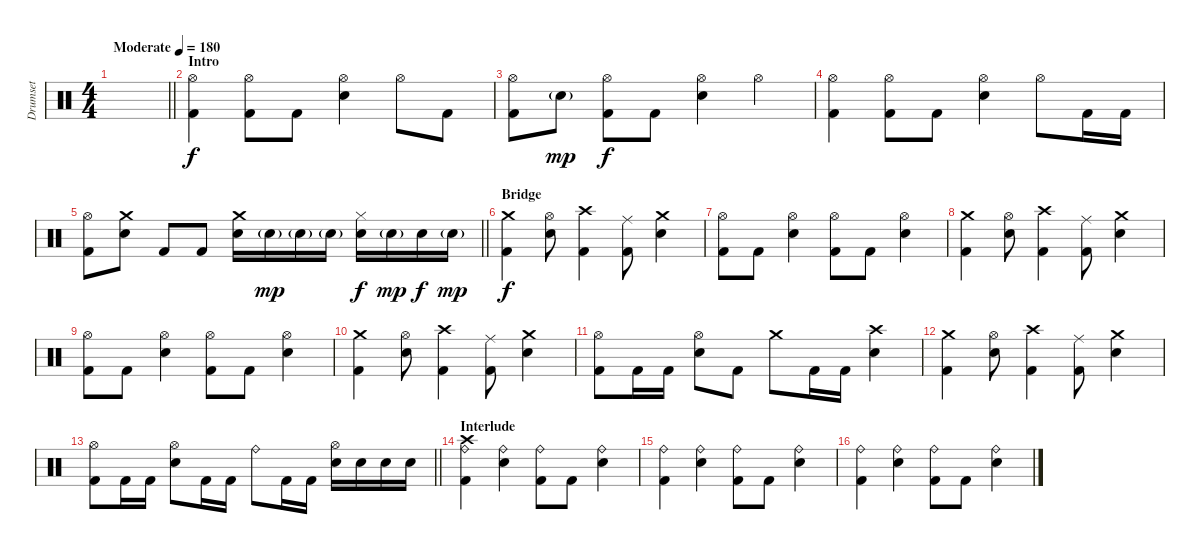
\track ("Drumset" "Drumset") {instrument percussion}
\staff {score}
\articulation defaults
\ts (4 4)
\tempo (180 "Moderate")
\clef neutral
\barLineRight lightlight
\ks c
|
\section ("" "Intro")
("Hi-Hat (open)" "Kick (hit) 2").4 ("Hi-Hat (open)" "Kick (hit) 2").8 "Kick (hit) 2".8 ("Hi-Hat (open)" "Snare (hit) 2").4 "Hi-Hat (open)".8 "Kick (hit) 2".8 |
("Hi-Hat (open)" "Kick (hit) 2").8 "Snare (hit) 2"{g}.8{dy mp} ("Hi-Hat (open)" "Kick (hit) 2").8{dy f} "Kick (hit) 2".8 ("Hi-Hat (open)" "Snare (hit) 2").4 "Hi-Hat (open)".4 |
("Hi-Hat (open)" "Kick (hit) 2").4 ("Hi-Hat (open)" "Kick (hit) 2").8 "Kick (hit) 2".8 ("Hi-Hat (open)" "Snare (hit) 2").4 "Hi-Hat (open)".8 "Kick (hit) 2".16 "Kick (hit) 2".16 |
\barLineRight lightlight
("Hi-Hat (open)" "Kick (hit) 2").8 ("Crash medium (hit)" "Snare (hit) 2").8 "Kick (hit) 2".8 "Kick (hit) 2".8 ("Crash medium (hit)" "Snare (hit) 2").16 "Snare (hit) 2"{g}.16{dy mp} "Snare (hit) 2"{g}.16 "Snare (hit) 2"{g}.16 ("Hi-Hat (closed)" "Snare (hit) 2").16{dy f} "Snare (hit) 2"{g}.16{dy mp} "Snare (hit) 2".16{dy f} "Snare (hit) 2"{g}.16{dy mp} |
\section ("" "Bridge")
("Crash medium (hit)" "Kick (hit) 2").4{dy f} ("Hi-Hat (open)" "Snare (hit) 2").8 ("Crash high (hit)" "Kick (hit) 2").4 ("Ride (middle)" "Kick (hit) 2").8 ("Crash medium (hit)" "Snare (hit) 2").4 |
("Hi-Hat (open)" "Kick (hit) 2").8 "Kick (hit) 2".8 ("Hi-Hat (open)" "Snare (hit) 2").4 ("Hi-Hat (open)" "Kick (hit) 2").8 "Kick (hit) 2".8 ("Hi-Hat (open)" "Snare (hit) 2").4 |
("Crash medium (hit)" "Kick (hit) 2").4 ("Hi-Hat (open)" "Snare (hit) 2").8 ("Crash high (hit)" "Kick (hit) 2").4 ("Ride (middle)" "Kick (hit) 2").8 ("Crash medium (hit)" "Snare (hit) 2").4 |
("Hi-Hat (open)" "Kick (hit) 2").8 "Kick (hit) 2".8 ("Hi-Hat (open)" "Snare (hit) 2").4 ("Hi-Hat (open)" "Kick (hit) 2").8 "Kick (hit) 2".8 ("Hi-Hat (open)" "Snare (hit) 2").4 |
("Crash medium (hit)" "Kick (hit) 2").4 ("Hi-Hat (open)" "Snare (hit) 2").8 ("Crash high (hit)" "Kick (hit) 2").4 ("Ride (middle)" "Kick (hit) 2").8 ("Crash medium (hit)" "Snare (hit) 2").4 |
("Hi-Hat (open)" "Kick (hit) 2").8 "Kick (hit) 2".16 "Kick (hit) 2".16 ("Hi-Hat (open)" "Snare (hit) 2").8 "Kick (hit) 2".8 "Crash medium (hit)".8 "Kick (hit) 2".16 "Kick (hit) 2".16 ("Crash high (hit)" "Snare (hit) 2").4 |
("Crash medium (hit)" "Kick (hit) 2").4 ("Hi-Hat (open)" "Snare (hit) 2").8 ("Crash high (hit)" "Kick (hit) 2").4 ("Ride (middle)" "Kick (hit) 2").8 ("Crash medium (hit)" "Snare (hit) 2").4 |
\barLineRight lightlight
("Hi-Hat (open)" "Kick (hit) 2").8 "Kick (hit) 2".16 "Kick (hit) 2".16 ("Hi-Hat (open)" "Snare (hit) 2").8 "Kick (hit) 2".16 "Kick (hit) 2".16 "Ride (bell)".8 "Kick (hit) 2".16 "Kick (hit) 2".16 ("Hi-Hat (open)" "Snare (hit) 2").16 "Snare (hit) 2".16 "Snare (hit) 2".16 "Snare (hit) 2".16 |
\section ("" "Interlude")
("Ride (bell)" "Crash high (hit)" "Kick (hit) 2").4 ("Ride (bell)" "Snare (hit) 2").4 ("Ride (bell)" "Kick (hit) 2").8 "Kick (hit) 2".8 ("Ride (bell)" "Snare (hit) 2").4 |
("Ride (bell)" "Kick (hit) 2").4 ("Ride (bell)" "Snare (hit) 2").4 ("Ride (bell)" "Kick (hit) 2").8 "Kick (hit) 2".8 ("Ride (bell)" "Snare (hit) 2").4 |
("Ride (bell)" "Kick (hit) 2").4 ("Ride (bell)" "Snare (hit) 2").4 ("Ride (bell)" "Kick (hit) 2").8 "Kick (hit) 2".8 ("Ride (bell)" "Snare (hit) 2").4
